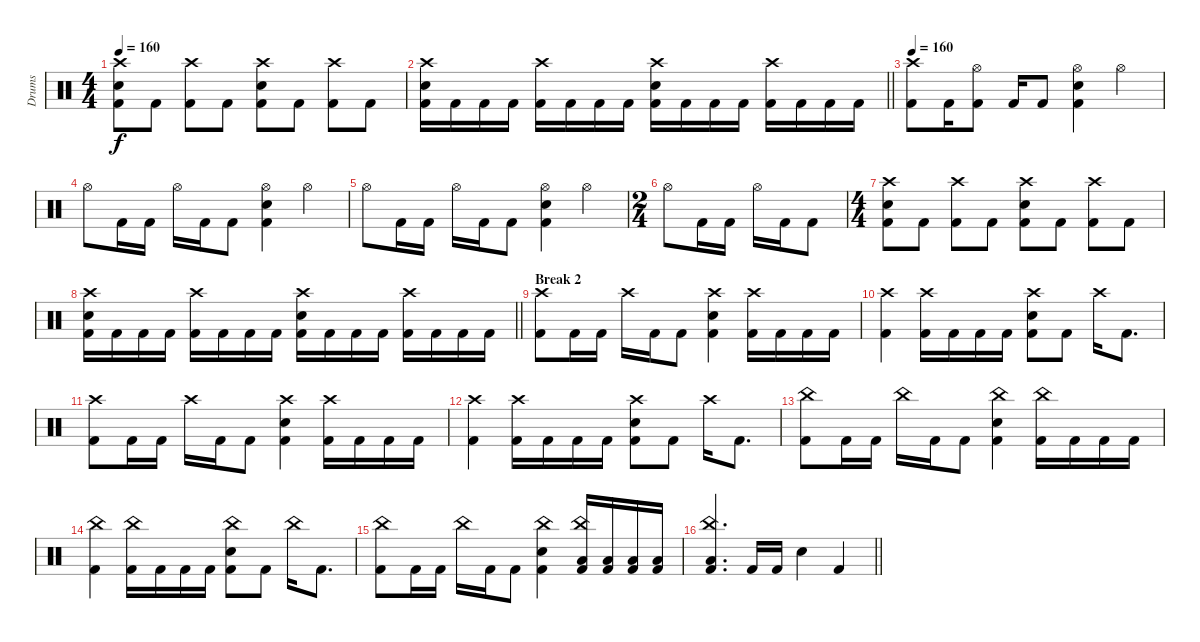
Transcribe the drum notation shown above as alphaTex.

\track ("Drums" "Drums") {instrument percussion}
\staff {score}
\articulation defaults
\ts (4 4)
\tempo 160
\clef neutral
\ks c
("Crash high (hit)" "Electric Snare (hit)" "Kick (hit) 2").8{dy f} "Kick (hit) 2".8 ("Crash high (hit)" "Kick (hit) 2").8 "Kick (hit) 2".8 ("Crash high (hit)" "Electric Snare (hit)" "Kick (hit) 2").8 "Kick (hit) 2".8 ("Crash high (hit)" "Kick (hit) 2").8 "Kick (hit) 2".8 |
\barLineRight lightlight
("Crash high (hit)" "Electric Snare (hit)" "Kick (hit) 2").16 "Kick (hit) 2".16 "Kick (hit) 2".16 "Kick (hit) 2".16 ("Crash high (hit)" "Kick (hit) 2").16 "Kick (hit) 2".16 "Kick (hit) 2".16 "Kick (hit) 2".16 ("Crash high (hit)" "Electric Snare (hit)" "Kick (hit) 2").16 "Kick (hit) 2".16 "Kick (hit) 2".16 "Kick (hit) 2".16 ("Crash high (hit)" "Kick (hit) 2").16 "Kick (hit) 2".16 "Kick (hit) 2".16 "Kick (hit) 2".16 |
\tempo 160
("Crash high (hit)" "Kick (hit) 2").8 "Kick (hit) 2".16 ("Hi-Hat (open)" "Kick (hit) 2").8 "Kick (hit) 2".16 "Kick (hit) 2".8 ("Hi-Hat (open)" "Electric Snare (hit)" "Kick (hit) 2").4 "Hi-Hat (open)".4 |
"Hi-Hat (open)".8 "Kick (hit) 2".16 "Kick (hit) 2".16 "Hi-Hat (open)".16 "Kick (hit) 2".16 "Kick (hit) 2".8 ("Hi-Hat (open)" "Electric Snare (hit)" "Kick (hit) 2").4 "Hi-Hat (open)".4 |
"Hi-Hat (open)".8 "Kick (hit) 2".16 "Kick (hit) 2".16 "Hi-Hat (open)".16 "Kick (hit) 2".16 "Kick (hit) 2".8 ("Hi-Hat (open)" "Electric Snare (hit)" "Kick (hit) 2").4 "Hi-Hat (open)".4 |
\ts (2 4)
"Hi-Hat (open)".8 "Kick (hit) 2".16 "Kick (hit) 2".16 "Hi-Hat (open)".16 "Kick (hit) 2".16 "Kick (hit) 2".8 |
\ts (4 4)
("Crash high (hit)" "Electric Snare (hit)" "Kick (hit) 2").8 "Kick (hit) 2".8 ("Crash high (hit)" "Kick (hit) 2").8 "Kick (hit) 2".8 ("Crash high (hit)" "Electric Snare (hit)" "Kick (hit) 2").8 "Kick (hit) 2".8 ("Crash high (hit)" "Kick (hit) 2").8 "Kick (hit) 2".8 |
\barLineRight lightlight
("Crash high (hit)" "Electric Snare (hit)" "Kick (hit) 2").16 "Kick (hit) 2".16 "Kick (hit) 2".16 "Kick (hit) 2".16 ("Crash high (hit)" "Kick (hit) 2").16 "Kick (hit) 2".16 "Kick (hit) 2".16 "Kick (hit) 2".16 ("Crash high (hit)" "Electric Snare (hit)" "Kick (hit) 2").16 "Kick (hit) 2".16 "Kick (hit) 2".16 "Kick (hit) 2".16 ("Crash high (hit)" "Kick (hit) 2").16 "Kick (hit) 2".16 "Kick (hit) 2".16 "Kick (hit) 2".16 |
\section ("" "Break 2")
("Crash high (hit)" "Kick (hit) 2").8 "Kick (hit) 2".16 "Kick (hit) 2".16 "Crash high (hit)".16 "Kick (hit) 2".16 "Kick (hit) 2".8 ("Crash high (hit)" "Electric Snare (hit)" "Kick (hit) 2").4 ("Crash high (hit)" "Kick (hit) 2").16 "Kick (hit) 2".16 "Kick (hit) 2".16 "Kick (hit) 2".16 |
("Crash high (hit)" "Kick (hit) 2").4 ("Crash high (hit)" "Kick (hit) 2").16 "Kick (hit) 2".16 "Kick (hit) 2".16 "Kick (hit) 2".16 ("Crash high (hit)" "Electric Snare (hit)" "Kick (hit) 2").8 "Kick (hit) 2".8 "Crash high (hit)".16 "Kick (hit) 2".8{d} |
("Crash high (hit)" "Kick (hit) 2").8 "Kick (hit) 2".16 "Kick (hit) 2".16 "Crash high (hit)".16 "Kick (hit) 2".16 "Kick (hit) 2".8 ("Crash high (hit)" "Electric Snare (hit)" "Kick (hit) 2").4 ("Crash high (hit)" "Kick (hit) 2").16 "Kick (hit) 2".16 "Kick (hit) 2".16 "Kick (hit) 2".16 |
("Crash high (hit)" "Kick (hit) 2").4 ("Crash high (hit)" "Kick (hit) 2").16 "Kick (hit) 2".16 "Kick (hit) 2".16 "Kick (hit) 2".16 ("Crash high (hit)" "Electric Snare (hit)" "Kick (hit) 2").8 "Kick (hit) 2".8 "Crash high (hit)".16 "Kick (hit) 2".8{d} |
("China (hit)" "Kick (hit) 2").8 "Kick (hit) 2".16 "Kick (hit) 2".16 "China (hit)".16 "Kick (hit) 2".16 "Kick (hit) 2".8 ("China (hit)" "Electric Snare (hit)" "Kick (hit) 2").4 ("China (hit)" "Kick (hit) 2").16 "Kick (hit) 2".16 "Kick (hit) 2".16 "Kick (hit) 2".16 |
("China (hit)" "Kick (hit) 2").4 ("China (hit)" "Kick (hit) 2").16 "Kick (hit) 2".16 "Kick (hit) 2".16 "Kick (hit) 2".16 ("China (hit)" "Electric Snare (hit)" "Kick (hit) 2").8 "Kick (hit) 2".8 "China (hit)".16 "Kick (hit) 2".8{d} |
("China (hit)" "Kick (hit) 2").8 "Kick (hit) 2".16 "Kick (hit) 2".16 "China (hit)".16 "Kick (hit) 2".16 "Kick (hit) 2".8 ("China (hit)" "Electric Snare (hit)" "Kick (hit) 2").4 ("China (hit)" "Low Tom (hit)" "Kick (hit) 2").16 ("Low Tom (hit)" "Kick (hit) 2").16 ("Low Tom (hit)" "Kick (hit) 2").16 ("Low Tom (hit)" "Kick (hit) 2").16 |
\barLineRight lightlight
("China (hit)" "Low Tom (hit)" "Kick (hit) 2").4{d} "Kick (hit) 2".16 "Kick (hit) 2".16 "Electric Snare (hit)".4 "Kick (hit) 2".4
